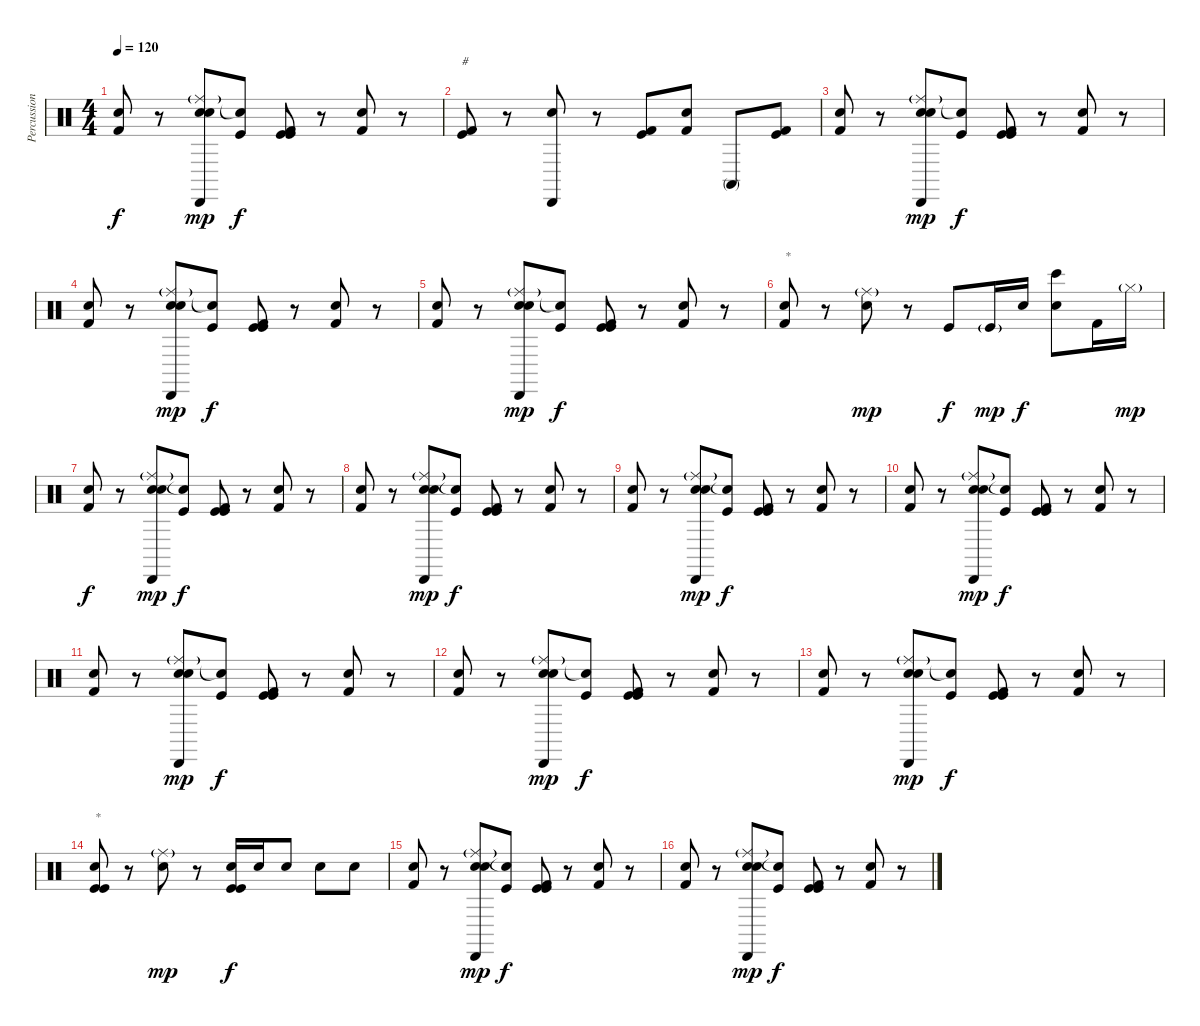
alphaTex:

\track ("Percussion" "Percussion") {instrument percussion}
\staff {score}
\articulation defaults
\ts (4 4)
\tempo 120
\clef neutral
\ks c
("Kick (hit) 2" "Snare (hit) 2").8{dy f} r.8 ("Ride (middle)"{g} "Snare (hit) 2" "Cabasa (hit)" "Snare (hit) 2").8{dy mp} ("Snare (hit)"{t} "Kick (hit)").8{dy f} ("Kick (hit)" "Kick (hit)" "Kick (hit) 2").8 r.8 ("Kick (hit) 2" "Snare (hit) 2").8 r.8 |
("Kick (hit) 2" "Kick (hit)").8{txt "#"} r.8 ("Cabasa (hit)" "Snare (hit) 2").8 r.8 ("Kick (hit)" "Kick (hit) 2").8 ("Snare (hit) 2" "Kick (hit) 2").8 "Conga high (mute)".8 ("Kick (hit)" "Kick (hit) 2").8 |
("Kick (hit) 2" "Snare (hit) 2").8 r.8 ("Ride (middle)"{g} "Snare (hit) 2" "Cabasa (hit)" "Snare (hit) 2").8{dy mp} ("Snare (hit)"{t} "Kick (hit)").8{dy f} ("Kick (hit)" "Kick (hit)" "Kick (hit) 2").8 r.8 ("Kick (hit) 2" "Snare (hit) 2").8 r.8 |
("Kick (hit) 2" "Snare (hit) 2").8 r.8 ("Ride (middle)"{g} "Snare (hit) 2" "Cabasa (hit)" "Snare (hit) 2").8{dy mp} ("Snare (hit)"{t} "Kick (hit)").8{dy f} ("Kick (hit)" "Kick (hit)" "Kick (hit) 2").8 r.8 ("Kick (hit) 2" "Snare (hit) 2").8 r.8 |
("Kick (hit) 2" "Snare (hit) 2").8 r.8 ("Ride (middle)"{g} "Snare (hit) 2" "Cabasa (hit)" "Snare (hit) 2").8{dy mp} ("Snare (hit)"{t} "Kick (hit)").8{dy f} ("Kick (hit)" "Kick (hit)" "Kick (hit) 2").8 r.8 ("Kick (hit) 2" "Snare (hit) 2").8 r.8 |
("Kick (hit) 2" "Snare (hit) 2").8{txt "*"} r.8 ("Ride (middle)"{g} "Snare (hit) 2").8{dy mp} r.8 "Kick (hit)".8{dy f} "Kick (hit)"{g}.16{dy mp} "Electric Snare (hit)".16{dy f} ("Bongo High (hit)" "Snare (hit) 2").8 "Kick (hit) 2".16 "Hi-Hat (closed)"{g}.16{dy mp} |
("Kick (hit) 2" "Snare (hit) 2").8{dy f} r.8 ("Ride (middle)"{g} "Snare (hit) 2" "Cabasa (hit)" "Snare (hit) 2").8{dy mp} ("Snare (hit)"{t} "Kick (hit)").8{dy f} ("Kick (hit)" "Kick (hit)" "Kick (hit) 2").8 r.8 ("Kick (hit) 2" "Snare (hit) 2").8 r.8 |
("Kick (hit) 2" "Snare (hit) 2").8 r.8 ("Ride (middle)"{g} "Snare (hit) 2" "Cabasa (hit)" "Snare (hit) 2").8{dy mp} ("Snare (hit)"{t} "Kick (hit)").8{dy f} ("Kick (hit)" "Kick (hit)" "Kick (hit) 2").8 r.8 ("Kick (hit) 2" "Snare (hit) 2").8 r.8 |
("Kick (hit) 2" "Snare (hit) 2").8 r.8 ("Ride (middle)"{g} "Snare (hit) 2" "Cabasa (hit)" "Snare (hit) 2").8{dy mp} ("Snare (hit)"{t} "Kick (hit)").8{dy f} ("Kick (hit)" "Kick (hit)" "Kick (hit) 2").8 r.8 ("Kick (hit) 2" "Snare (hit) 2").8 r.8 |
("Kick (hit) 2" "Snare (hit) 2").8 r.8 ("Ride (middle)"{g} "Snare (hit) 2" "Cabasa (hit)" "Snare (hit) 2").8{dy mp} ("Snare (hit)"{t} "Kick (hit)").8{dy f} ("Kick (hit)" "Kick (hit)" "Kick (hit) 2").8 r.8 ("Kick (hit) 2" "Snare (hit) 2").8 r.8 |
("Kick (hit) 2" "Snare (hit) 2").8 r.8 ("Ride (middle)"{g} "Snare (hit) 2" "Cabasa (hit)" "Snare (hit) 2").8{dy mp} ("Snare (hit)"{t} "Kick (hit)").8{dy f} ("Kick (hit)" "Kick (hit)" "Kick (hit) 2").8 r.8 ("Kick (hit) 2" "Snare (hit) 2").8 r.8 |
("Kick (hit) 2" "Snare (hit) 2").8 r.8 ("Ride (middle)"{g} "Snare (hit) 2" "Cabasa (hit)" "Snare (hit) 2").8{dy mp} ("Snare (hit)"{t} "Kick (hit)").8{dy f} ("Kick (hit)" "Kick (hit)" "Kick (hit) 2").8 r.8 ("Kick (hit) 2" "Snare (hit) 2").8 r.8 |
("Kick (hit) 2" "Snare (hit) 2").8 r.8 ("Ride (middle)"{g} "Snare (hit) 2" "Cabasa (hit)" "Snare (hit) 2").8{dy mp} ("Snare (hit)"{t} "Kick (hit)").8{dy f} ("Kick (hit)" "Kick (hit)" "Kick (hit) 2").8 r.8 ("Kick (hit) 2" "Snare (hit) 2").8 r.8 |
("Kick (hit)" "Kick (hit)" "Snare (hit) 2").8{txt "*"} r.8 ("Ride (middle)"{g} "Snare (hit) 2").8{dy mp} r.8 ("Kick (hit)" "Kick (hit)" "Snare (hit) 2").16{dy f} "Snare (hit) 2".16 "Snare (hit) 2".8 "Snare (hit) 2".8 "Snare (hit) 2".8 |
("Kick (hit) 2" "Snare (hit) 2").8 r.8 ("Ride (middle)"{g} "Snare (hit) 2" "Cabasa (hit)" "Snare (hit) 2").8{dy mp} ("Snare (hit)"{t} "Kick (hit)").8{dy f} ("Kick (hit)" "Kick (hit)" "Kick (hit) 2").8 r.8 ("Kick (hit) 2" "Snare (hit) 2").8 r.8 |
("Kick (hit) 2" "Snare (hit) 2").8 r.8 ("Ride (middle)"{g} "Snare (hit) 2" "Cabasa (hit)" "Snare (hit) 2").8{dy mp} ("Snare (hit)"{t} "Kick (hit)").8{dy f} ("Kick (hit)" "Kick (hit)" "Kick (hit) 2").8 r.8 ("Kick (hit) 2" "Snare (hit) 2").8 r.8
